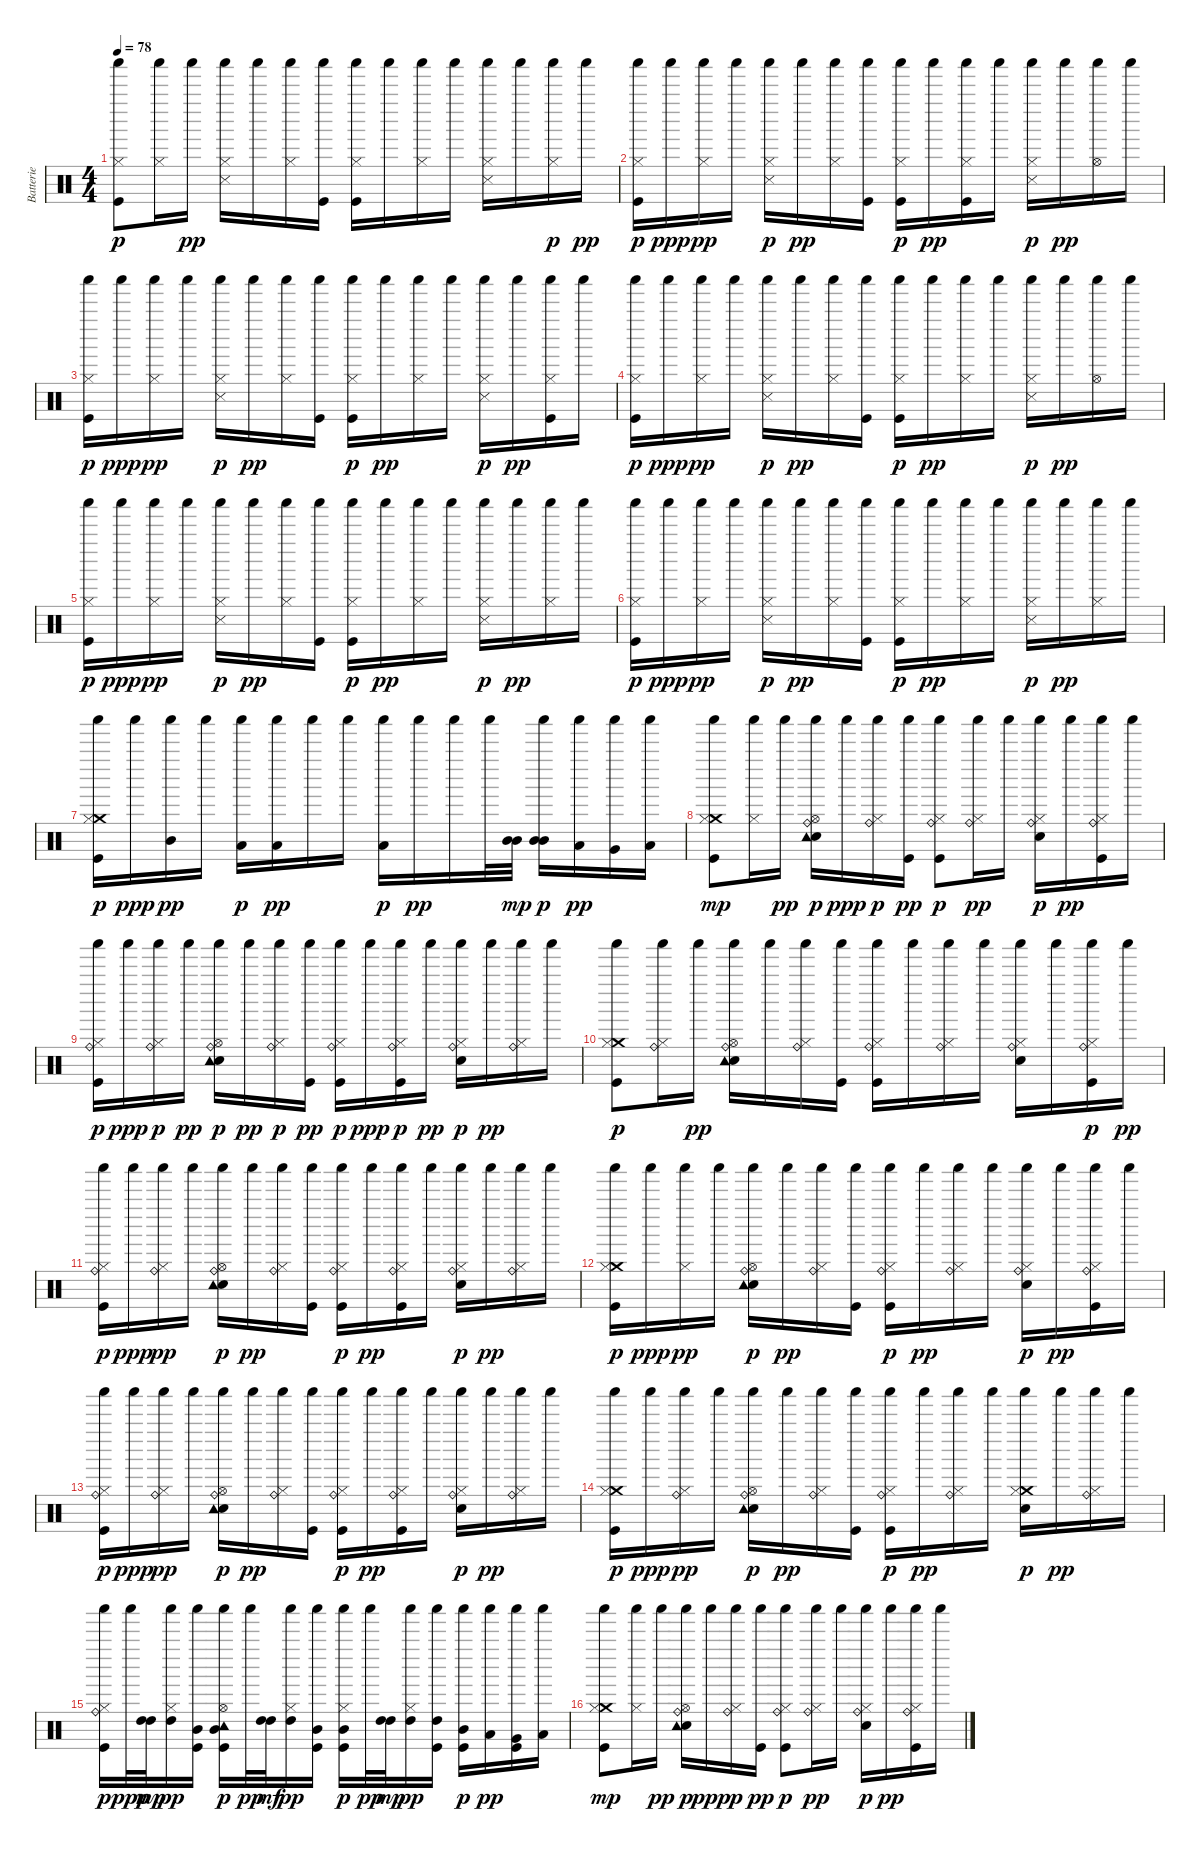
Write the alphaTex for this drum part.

\track ("Batterie" "Batterie") {instrument percussion}
\staff {score}
\articulation defaults
\ts (4 4)
\tempo 78
\clef neutral
\ks c
("Kick (hit)" "Hi-Hat (closed)" "Shaker (hit)").8{dy p} ("Hi-Hat (closed)" "Shaker (hit)").16 "Shaker (hit)".16{dy pp} ("Snare (side stick) 3" "Hi-Hat (closed)" "Shaker (hit)").16 "Shaker (hit)".16 ("Hi-Hat (closed)" "Shaker (hit)").16 ("Kick (hit)" "Shaker (hit)").16 ("Kick (hit)" "Hi-Hat (closed)" "Shaker (hit)").16 "Shaker (hit)".16 ("Hi-Hat (closed)" "Shaker (hit)").16 "Shaker (hit)".16 ("Snare (side stick) 3" "Hi-Hat (closed)" "Shaker (hit)").16 "Shaker (hit)".16 ("Hi-Hat (closed)" "Shaker (hit)").16{dy p} "Shaker (hit)".16{dy pp} |
("Kick (hit)" "Hi-Hat (closed)" "Shaker (hit)").16{dy p} "Shaker (hit)".16{dy ppp} ("Hi-Hat (closed)" "Shaker (hit)").16{dy pp} "Shaker (hit)".16 ("Snare (side stick) 3" "Hi-Hat (closed)" "Shaker (hit)").16{dy p} "Shaker (hit)".16{dy pp} ("Hi-Hat (closed)" "Shaker (hit)").16 ("Kick (hit)" "Shaker (hit)").16 ("Kick (hit)" "Hi-Hat (closed)" "Shaker (hit)").16{dy p} "Shaker (hit)".16{dy pp} ("Kick (hit)" "Hi-Hat (closed)" "Shaker (hit)").16 "Shaker (hit)".16 ("Snare (side stick) 3" "Hi-Hat (closed)" "Shaker (hit)").16{dy p} "Shaker (hit)".16{dy pp} ("Hi-Hat (open)" "Shaker (hit)").16 "Shaker (hit)".16 |
("Kick (hit)" "Hi-Hat (closed)" "Shaker (hit)").16{dy p} "Shaker (hit)".16{dy ppp} ("Hi-Hat (closed)" "Shaker (hit)").16{dy pp} "Shaker (hit)".16 ("Snare (side stick) 3" "Hi-Hat (closed)" "Shaker (hit)").16{dy p} "Shaker (hit)".16{dy pp} ("Hi-Hat (closed)" "Shaker (hit)").16 ("Kick (hit)" "Shaker (hit)").16 ("Kick (hit)" "Hi-Hat (closed)" "Shaker (hit)").16{dy p} "Shaker (hit)".16{dy pp} ("Hi-Hat (closed)" "Shaker (hit)").16 "Shaker (hit)".16 ("Snare (side stick) 3" "Hi-Hat (closed)" "Shaker (hit)").16{dy p} "Shaker (hit)".16{dy pp} ("Kick (hit)" "Hi-Hat (closed)" "Shaker (hit)").16 "Shaker (hit)".16 |
("Kick (hit)" "Hi-Hat (closed)" "Shaker (hit)").16{dy p} "Shaker (hit)".16{dy ppp} ("Hi-Hat (closed)" "Shaker (hit)").16{dy pp} "Shaker (hit)".16 ("Snare (side stick) 3" "Hi-Hat (closed)" "Shaker (hit)").16{dy p} "Shaker (hit)".16{dy pp} ("Hi-Hat (closed)" "Shaker (hit)").16 ("Kick (hit)" "Shaker (hit)").16 ("Kick (hit)" "Hi-Hat (closed)" "Shaker (hit)").16{dy p} "Shaker (hit)".16{dy pp} ("Hi-Hat (closed)" "Shaker (hit)").16 "Shaker (hit)".16 ("Snare (side stick) 3" "Hi-Hat (closed)" "Shaker (hit)").16{dy p} "Shaker (hit)".16{dy pp} ("Hi-Hat (open)" "Shaker (hit)").16 "Shaker (hit)".16 |
("Kick (hit)" "Hi-Hat (closed)" "Shaker (hit)").16{dy p} "Shaker (hit)".16{dy ppp} ("Hi-Hat (closed)" "Shaker (hit)").16{dy pp} "Shaker (hit)".16 ("Snare (side stick) 3" "Hi-Hat (closed)" "Shaker (hit)").16{dy p} "Shaker (hit)".16{dy pp} ("Hi-Hat (closed)" "Shaker (hit)").16 ("Kick (hit)" "Shaker (hit)").16 ("Kick (hit)" "Hi-Hat (closed)" "Shaker (hit)").16{dy p} "Shaker (hit)".16{dy pp} ("Hi-Hat (closed)" "Shaker (hit)").16 "Shaker (hit)".16 ("Snare (side stick) 3" "Hi-Hat (closed)" "Shaker (hit)").16{dy p} "Shaker (hit)".16{dy pp} ("Hi-Hat (closed)" "Shaker (hit)").16 "Shaker (hit)".16 |
("Kick (hit)" "Hi-Hat (closed)" "Shaker (hit)").16{dy p} "Shaker (hit)".16{dy ppp} ("Hi-Hat (closed)" "Shaker (hit)").16{dy pp} "Shaker (hit)".16 ("Snare (side stick) 3" "Hi-Hat (closed)" "Shaker (hit)").16{dy p} "Shaker (hit)".16{dy pp} ("Hi-Hat (closed)" "Shaker (hit)").16 ("Kick (hit)" "Shaker (hit)").16 ("Kick (hit)" "Hi-Hat (closed)" "Shaker (hit)").16{dy p} "Shaker (hit)".16{dy pp} ("Hi-Hat (closed)" "Shaker (hit)").16 "Shaker (hit)".16 ("Snare (side stick) 3" "Hi-Hat (closed)" "Shaker (hit)").16{dy p} "Shaker (hit)".16{dy pp} ("Hi-Hat (closed)" "Shaker (hit)").16 "Shaker (hit)".16 |
("Crash medium (hit)" "Kick (hit)" "Hi-Hat (closed)" "Shaker (hit)").16{dy p} "Shaker (hit)".16{dy ppp} ("Mid Tom (hit)" "Shaker (hit)").16{dy pp} "Shaker (hit)".16 ("Low Tom (hit)" "Shaker (hit)").16{dy p} ("Low Tom (hit)" "Shaker (hit)").16{dy pp} "Shaker (hit)".16 "Shaker (hit)".16 ("Low Tom (hit)" "Shaker (hit)").16{dy p} "Shaker (hit)".16{dy pp} "Shaker (hit)".16 "Shaker (hit)".32 ("Mid Tom (hit)" "Mid Tom (hit)").32{dy mp} ("Mid Tom (hit)" "Mid Tom (hit)" "Shaker (hit)").16{dy p} ("Low Tom (hit)" "Shaker (hit)").16{dy pp} ("Very Low Tom (hit)" "Shaker (hit)").16 ("Low Floor Tom (hit)" "Shaker (hit)").16 |
("Crash medium (hit)" "Kick (hit)" "Hi-Hat (closed)" "Shaker (hit)").8{dy mp} ("Hi-Hat (closed)" "Shaker (hit)").16 "Shaker (hit)".16{dy pp} ("Hi-Hat (open)" "Electric Snare (hit)" "Ride (bell)" "Shaker (hit)" "Tambourine (hit)").16{dy p} "Shaker (hit)".16{dy ppp} ("Ride (bell)" "Hi-Hat (closed)" "Shaker (hit)").16{dy p} ("Kick (hit)" "Shaker (hit)").16{dy pp} ("Ride (bell)" "Kick (hit)" "Hi-Hat (closed)" "Shaker (hit)").8{dy p} ("Ride (bell)" "Hi-Hat (closed)" "Shaker (hit)").16{dy pp} "Shaker (hit)".16 ("Electric Snare (hit)" "Ride (bell)" "Hi-Hat (closed)" "Shaker (hit)").16{dy p} "Shaker (hit)".16{dy pp} ("Ride (bell)" "Kick (hit)" "Hi-Hat (closed)" "Shaker (hit)").16 "Shaker (hit)".16 |
("Ride (bell)" "Kick (hit)" "Hi-Hat (closed)" "Shaker (hit)").16{dy p} "Shaker (hit)".16{dy ppp} ("Ride (bell)" "Hi-Hat (closed)" "Shaker (hit)").16{dy p} "Shaker (hit)".16{dy pp} ("Hi-Hat (open)" "Electric Snare (hit)" "Ride (bell)" "Shaker (hit)" "Tambourine (hit)").16{dy p} "Shaker (hit)".16{dy pp} ("Ride (bell)" "Hi-Hat (closed)" "Shaker (hit)").16{dy p} ("Kick (hit)" "Shaker (hit)").16{dy pp} ("Ride (bell)" "Kick (hit)" "Hi-Hat (closed)" "Shaker (hit)").16{dy p} "Shaker (hit)".16{dy ppp} ("Ride (bell)" "Kick (hit)" "Hi-Hat (closed)" "Shaker (hit)").16{dy p} "Shaker (hit)".16{dy pp} ("Electric Snare (hit)" "Ride (bell)" "Hi-Hat (closed)" "Shaker (hit)").16{dy p} "Shaker (hit)".16{dy pp} ("Ride (bell)" "Hi-Hat (closed)" "Shaker (hit)").16 "Shaker (hit)".16 |
("Crash medium (hit)" "Kick (hit)" "Hi-Hat (closed)" "Shaker (hit)").8{dy p} ("Ride (bell)" "Hi-Hat (closed)" "Shaker (hit)").16 "Shaker (hit)".16{dy pp} ("Hi-Hat (open)" "Electric Snare (hit)" "Ride (bell)" "Shaker (hit)" "Tambourine (hit)").16 "Shaker (hit)".16 ("Ride (bell)" "Hi-Hat (closed)" "Shaker (hit)").16 ("Kick (hit)" "Shaker (hit)").16 ("Ride (bell)" "Kick (hit)" "Hi-Hat (closed)" "Shaker (hit)").16 "Shaker (hit)".16 ("Ride (bell)" "Hi-Hat (closed)" "Shaker (hit)").16 "Shaker (hit)".16 ("Electric Snare (hit)" "Ride (bell)" "Hi-Hat (closed)" "Shaker (hit)").16 "Shaker (hit)".16 ("Ride (bell)" "Kick (hit)" "Hi-Hat (closed)" "Shaker (hit)").16{dy p} "Shaker (hit)".16{dy pp} |
("Ride (bell)" "Kick (hit)" "Hi-Hat (closed)" "Shaker (hit)").16{dy p} "Shaker (hit)".16{dy ppp} ("Ride (bell)" "Hi-Hat (closed)" "Shaker (hit)").16{dy pp} "Shaker (hit)".16 ("Hi-Hat (open)" "Electric Snare (hit)" "Ride (bell)" "Shaker (hit)" "Tambourine (hit)").16{dy p} "Shaker (hit)".16{dy pp} ("Ride (bell)" "Hi-Hat (closed)" "Shaker (hit)").16 ("Kick (hit)" "Shaker (hit)").16 ("Ride (bell)" "Kick (hit)" "Hi-Hat (closed)" "Shaker (hit)").16{dy p} "Shaker (hit)".16{dy pp} ("Ride (bell)" "Kick (hit)" "Hi-Hat (closed)" "Shaker (hit)").16 "Shaker (hit)".16 ("Electric Snare (hit)" "Ride (bell)" "Hi-Hat (closed)" "Shaker (hit)").16{dy p} "Shaker (hit)".16{dy pp} ("Ride (bell)" "Hi-Hat (closed)" "Shaker (hit)").16 "Shaker (hit)".16 |
("Crash medium (hit)" "Kick (hit)" "Hi-Hat (closed)" "Shaker (hit)").16{dy p} "Shaker (hit)".16{dy ppp} ("Hi-Hat (closed)" "Shaker (hit)").16{dy pp} "Shaker (hit)".16 ("Hi-Hat (open)" "Electric Snare (hit)" "Ride (bell)" "Shaker (hit)" "Tambourine (hit)").16{dy p} "Shaker (hit)".16{dy pp} ("Ride (bell)" "Hi-Hat (closed)" "Shaker (hit)").16 ("Kick (hit)" "Shaker (hit)").16 ("Ride (bell)" "Kick (hit)" "Hi-Hat (closed)" "Shaker (hit)").16{dy p} "Shaker (hit)".16{dy pp} ("Ride (bell)" "Hi-Hat (closed)" "Shaker (hit)").16 "Shaker (hit)".16 ("Electric Snare (hit)" "Ride (bell)" "Hi-Hat (closed)" "Shaker (hit)").16{dy p} "Shaker (hit)".16{dy pp} ("Ride (bell)" "Kick (hit)" "Hi-Hat (closed)" "Shaker (hit)").16 "Shaker (hit)".16 |
("Ride (bell)" "Kick (hit)" "Hi-Hat (closed)" "Shaker (hit)").16{dy p} "Shaker (hit)".16{dy ppp} ("Ride (bell)" "Hi-Hat (closed)" "Shaker (hit)").16{dy pp} "Shaker (hit)".16 ("Hi-Hat (open)" "Electric Snare (hit)" "Ride (bell)" "Shaker (hit)" "Tambourine (hit)").16{dy p} "Shaker (hit)".16{dy pp} ("Ride (bell)" "Hi-Hat (closed)" "Shaker (hit)").16 ("Kick (hit)" "Shaker (hit)").16 ("Ride (bell)" "Kick (hit)" "Hi-Hat (closed)" "Shaker (hit)").16{dy p} "Shaker (hit)".16{dy pp} ("Ride (bell)" "Kick (hit)" "Hi-Hat (closed)" "Shaker (hit)").16 "Shaker (hit)".16 ("Electric Snare (hit)" "Ride (bell)" "Hi-Hat (closed)" "Shaker (hit)").16{dy p} "Shaker (hit)".16{dy pp} ("Ride (bell)" "Hi-Hat (closed)" "Shaker (hit)").16 "Shaker (hit)".16 |
("Crash medium (hit)" "Kick (hit)" "Hi-Hat (closed)" "Shaker (hit)").16{dy p} "Shaker (hit)".16{dy ppp} ("Ride (bell)" "Hi-Hat (closed)" "Shaker (hit)").16{dy pp} "Shaker (hit)".16 ("Hi-Hat (open)" "Electric Snare (hit)" "Ride (bell)" "Shaker (hit)" "Tambourine (hit)").16{dy p} "Shaker (hit)".16{dy pp} ("Ride (bell)" "Hi-Hat (closed)" "Shaker (hit)").16 ("Kick (hit)" "Shaker (hit)").16 ("Ride (bell)" "Kick (hit)" "Hi-Hat (closed)" "Shaker (hit)").16{dy p} "Shaker (hit)".16{dy pp} ("Ride (bell)" "Hi-Hat (closed)" "Shaker (hit)").16 "Shaker (hit)".16 ("Crash medium (hit)" "Electric Snare (hit)" "Hi-Hat (closed)" "Shaker (hit)").16{dy p} "Shaker (hit)".16{dy pp} ("Ride (bell)" "Hi-Hat (closed)" "Shaker (hit)").16 "Shaker (hit)".16 |
("Ride (bell)" "Kick (hit)" "Hi-Hat (closed)" "Shaker (hit)").16{dy p} "Shaker (hit)".32{dy ppp} ("High Tom (hit)" "High Tom (hit)").32{dy mp} ("High Tom (hit)" "Hi-Hat (closed)" "Shaker (hit)").16{dy pp} ("Mid Tom (hit)" "Kick (hit)" "Shaker (hit)").16 ("Hi-Hat (open)" "Mid Tom (hit)" "Kick (hit)" "Shaker (hit)" "Tambourine (hit)").16{dy p} "Shaker (hit)".32{dy pp} ("High Tom (hit)" "High Tom (hit)").32{dy mf} ("High Tom (hit)" "Hi-Hat (closed)" "Shaker (hit)").16{dy pp} ("Mid Tom (hit)" "Kick (hit)" "Shaker (hit)").16 ("Mid Tom (hit)" "Kick (hit)" "Hi-Hat (closed)" "Shaker (hit)").16{dy p} "Shaker (hit)".32{dy pp} ("High Tom (hit)" "High Tom (hit)").32{dy mp} ("High Tom (hit)" "Hi-Hat (closed)" "Shaker (hit)").16{dy pp} ("High Tom (hit)" "Kick (hit)" "Shaker (hit)").16 ("Mid Tom (hit)" "Kick (hit)" "Shaker (hit)").16{dy p} ("Low Tom (hit)" "Shaker (hit)").16{dy pp} ("Very Low Tom (hit)" "Kick (hit)" "Shaker (hit)").16 ("Low Floor Tom (hit)" "Shaker (hit)").16 |
("Crash medium (hit)" "Kick (hit)" "Hi-Hat (closed)" "Shaker (hit)").8{dy mp} ("Hi-Hat (closed)" "Shaker (hit)").16 "Shaker (hit)".16{dy pp} ("Hi-Hat (open)" "Electric Snare (hit)" "Ride (bell)" "Shaker (hit)" "Tambourine (hit)").16{dy p} "Shaker (hit)".16{dy ppp} ("Ride (bell)" "Hi-Hat (closed)" "Shaker (hit)").16{dy p} ("Kick (hit)" "Shaker (hit)").16{dy pp} ("Ride (bell)" "Kick (hit)" "Hi-Hat (closed)" "Shaker (hit)").8{dy p} ("Ride (bell)" "Hi-Hat (closed)" "Shaker (hit)").16{dy pp} "Shaker (hit)".16 ("Electric Snare (hit)" "Ride (bell)" "Hi-Hat (closed)" "Shaker (hit)").16{dy p} "Shaker (hit)".16{dy pp} ("Ride (bell)" "Kick (hit)" "Hi-Hat (closed)" "Shaker (hit)").16 "Shaker (hit)".16
